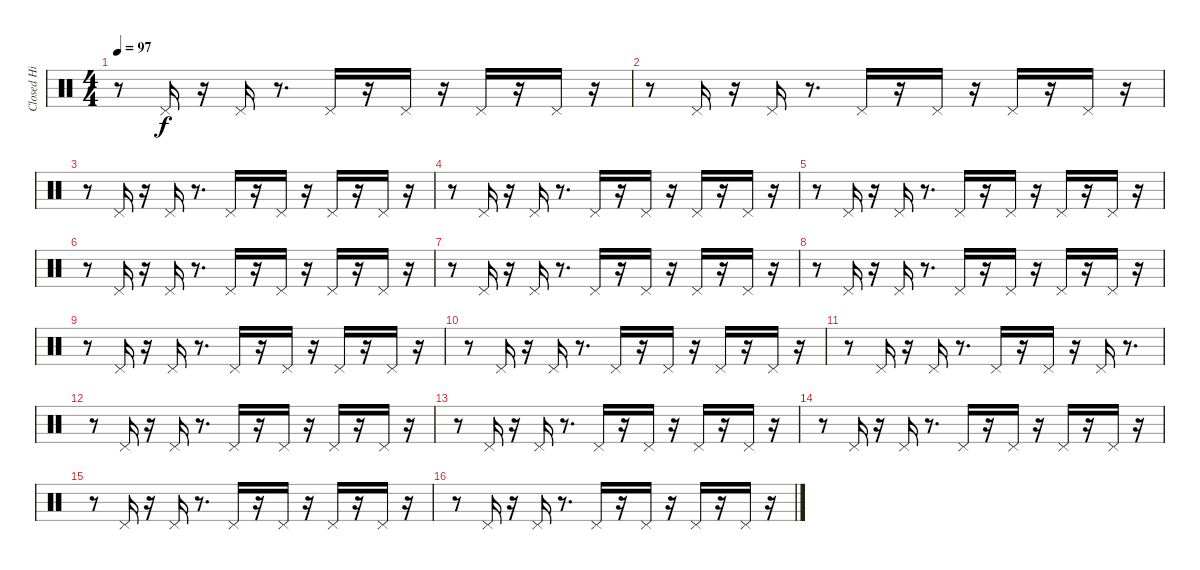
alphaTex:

\track ("Closed Hi Hat" "Closed Hi ") {instrument percussion}
\staff {score}
\articulation defaults
\ts (4 4)
\tempo 97
\clef neutral
\ks c
r.8{dy f} "Pedal Hi-Hat (hit)".16 r.16 "Pedal Hi-Hat (hit)".16 r.8{d} "Pedal Hi-Hat (hit)".16 r.16 "Pedal Hi-Hat (hit)".16 r.16 "Pedal Hi-Hat (hit)".16 r.16 "Pedal Hi-Hat (hit)".16 r.16 |
r.8 "Pedal Hi-Hat (hit)".16 r.16 "Pedal Hi-Hat (hit)".16 r.8{d} "Pedal Hi-Hat (hit)".16 r.16 "Pedal Hi-Hat (hit)".16 r.16 "Pedal Hi-Hat (hit)".16 r.16 "Pedal Hi-Hat (hit)".16 r.16 |
r.8 "Pedal Hi-Hat (hit)".16 r.16 "Pedal Hi-Hat (hit)".16 r.8{d} "Pedal Hi-Hat (hit)".16 r.16 "Pedal Hi-Hat (hit)".16 r.16 "Pedal Hi-Hat (hit)".16 r.16 "Pedal Hi-Hat (hit)".16 r.16 |
r.8 "Pedal Hi-Hat (hit)".16 r.16 "Pedal Hi-Hat (hit)".16 r.8{d} "Pedal Hi-Hat (hit)".16 r.16 "Pedal Hi-Hat (hit)".16 r.16 "Pedal Hi-Hat (hit)".16 r.16 "Pedal Hi-Hat (hit)".16 r.16 |
r.8 "Pedal Hi-Hat (hit)".16 r.16 "Pedal Hi-Hat (hit)".16 r.8{d} "Pedal Hi-Hat (hit)".16 r.16 "Pedal Hi-Hat (hit)".16 r.16 "Pedal Hi-Hat (hit)".16 r.16 "Pedal Hi-Hat (hit)".16 r.16 |
r.8 "Pedal Hi-Hat (hit)".16 r.16 "Pedal Hi-Hat (hit)".16 r.8{d} "Pedal Hi-Hat (hit)".16 r.16 "Pedal Hi-Hat (hit)".16 r.16 "Pedal Hi-Hat (hit)".16 r.16 "Pedal Hi-Hat (hit)".16 r.16 |
r.8 "Pedal Hi-Hat (hit)".16 r.16 "Pedal Hi-Hat (hit)".16 r.8{d} "Pedal Hi-Hat (hit)".16 r.16 "Pedal Hi-Hat (hit)".16 r.16 "Pedal Hi-Hat (hit)".16 r.16 "Pedal Hi-Hat (hit)".16 r.16 |
r.8 "Pedal Hi-Hat (hit)".16 r.16 "Pedal Hi-Hat (hit)".16 r.8{d} "Pedal Hi-Hat (hit)".16 r.16 "Pedal Hi-Hat (hit)".16 r.16 "Pedal Hi-Hat (hit)".16 r.16 "Pedal Hi-Hat (hit)".16 r.16 |
r.8 "Pedal Hi-Hat (hit)".16 r.16 "Pedal Hi-Hat (hit)".16 r.8{d} "Pedal Hi-Hat (hit)".16 r.16 "Pedal Hi-Hat (hit)".16 r.16 "Pedal Hi-Hat (hit)".16 r.16 "Pedal Hi-Hat (hit)".16 r.16 |
r.8 "Pedal Hi-Hat (hit)".16 r.16 "Pedal Hi-Hat (hit)".16 r.8{d} "Pedal Hi-Hat (hit)".16 r.16 "Pedal Hi-Hat (hit)".16 r.16 "Pedal Hi-Hat (hit)".16 r.16 "Pedal Hi-Hat (hit)".16 r.16 |
r.8 "Pedal Hi-Hat (hit)".16 r.16 "Pedal Hi-Hat (hit)".16 r.8{d} "Pedal Hi-Hat (hit)".16 r.16 "Pedal Hi-Hat (hit)".16 r.16 "Pedal Hi-Hat (hit)".16 r.8{d} |
r.8 "Pedal Hi-Hat (hit)".16 r.16 "Pedal Hi-Hat (hit)".16 r.8{d} "Pedal Hi-Hat (hit)".16 r.16 "Pedal Hi-Hat (hit)".16 r.16 "Pedal Hi-Hat (hit)".16 r.16 "Pedal Hi-Hat (hit)".16 r.16 |
r.8 "Pedal Hi-Hat (hit)".16 r.16 "Pedal Hi-Hat (hit)".16 r.8{d} "Pedal Hi-Hat (hit)".16 r.16 "Pedal Hi-Hat (hit)".16 r.16 "Pedal Hi-Hat (hit)".16 r.16 "Pedal Hi-Hat (hit)".16 r.16 |
r.8 "Pedal Hi-Hat (hit)".16 r.16 "Pedal Hi-Hat (hit)".16 r.8{d} "Pedal Hi-Hat (hit)".16 r.16 "Pedal Hi-Hat (hit)".16 r.16 "Pedal Hi-Hat (hit)".16 r.16 "Pedal Hi-Hat (hit)".16 r.16 |
r.8 "Pedal Hi-Hat (hit)".16 r.16 "Pedal Hi-Hat (hit)".16 r.8{d} "Pedal Hi-Hat (hit)".16 r.16 "Pedal Hi-Hat (hit)".16 r.16 "Pedal Hi-Hat (hit)".16 r.16 "Pedal Hi-Hat (hit)".16 r.16 |
r.8 "Pedal Hi-Hat (hit)".16 r.16 "Pedal Hi-Hat (hit)".16 r.8{d} "Pedal Hi-Hat (hit)".16 r.16 "Pedal Hi-Hat (hit)".16 r.16 "Pedal Hi-Hat (hit)".16 r.16 "Pedal Hi-Hat (hit)".16 r.16
